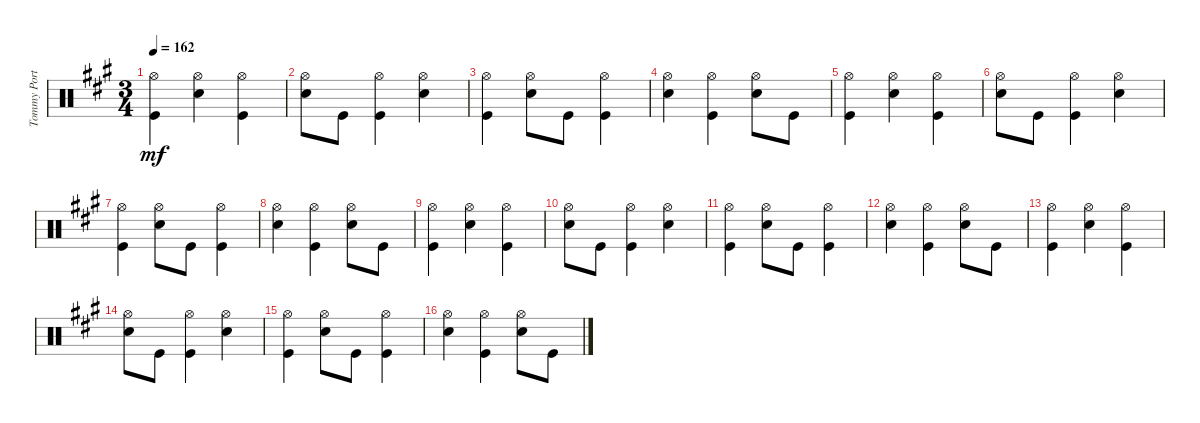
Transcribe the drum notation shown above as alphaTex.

\track ("Tommy Portimo (Drums)" "Tommy Port") {instrument percussion}
\staff {score}
\articulation defaults
\ts (3 4)
\tempo 162
\clef neutral
\ks a
("Kick (hit)" "Hi-Hat (open)").4{dy mf} ("Electric Snare (hit)" "Hi-Hat (open)").4 ("Kick (hit)" "Hi-Hat (open)").4 |
("Electric Snare (hit)" "Hi-Hat (open)").8 "Kick (hit)".8 ("Kick (hit)" "Hi-Hat (open)").4 ("Electric Snare (hit)" "Hi-Hat (open)").4 |
("Kick (hit)" "Hi-Hat (open)").4 ("Electric Snare (hit)" "Hi-Hat (open)").8 "Kick (hit)".8 ("Kick (hit)" "Hi-Hat (open)").4 |
("Electric Snare (hit)" "Hi-Hat (open)").4 ("Kick (hit)" "Hi-Hat (open)").4 ("Electric Snare (hit)" "Hi-Hat (open)").8 "Kick (hit)".8 |
("Kick (hit)" "Hi-Hat (open)").4 ("Electric Snare (hit)" "Hi-Hat (open)").4 ("Kick (hit)" "Hi-Hat (open)").4 |
("Electric Snare (hit)" "Hi-Hat (open)").8 "Kick (hit)".8 ("Kick (hit)" "Hi-Hat (open)").4 ("Electric Snare (hit)" "Hi-Hat (open)").4 |
("Kick (hit)" "Hi-Hat (open)").4 ("Electric Snare (hit)" "Hi-Hat (open)").8 "Kick (hit)".8 ("Kick (hit)" "Hi-Hat (open)").4 |
("Electric Snare (hit)" "Hi-Hat (open)").4 ("Kick (hit)" "Hi-Hat (open)").4 ("Electric Snare (hit)" "Hi-Hat (open)").8 "Kick (hit)".8 |
("Kick (hit)" "Hi-Hat (open)").4 ("Electric Snare (hit)" "Hi-Hat (open)").4 ("Kick (hit)" "Hi-Hat (open)").4 |
("Electric Snare (hit)" "Hi-Hat (open)").8 "Kick (hit)".8 ("Kick (hit)" "Hi-Hat (open)").4 ("Electric Snare (hit)" "Hi-Hat (open)").4 |
("Kick (hit)" "Hi-Hat (open)").4 ("Electric Snare (hit)" "Hi-Hat (open)").8 "Kick (hit)".8 ("Kick (hit)" "Hi-Hat (open)").4 |
("Electric Snare (hit)" "Hi-Hat (open)").4 ("Kick (hit)" "Hi-Hat (open)").4 ("Electric Snare (hit)" "Hi-Hat (open)").8 "Kick (hit)".8 |
("Kick (hit)" "Hi-Hat (open)").4 ("Electric Snare (hit)" "Hi-Hat (open)").4 ("Kick (hit)" "Hi-Hat (open)").4 |
("Electric Snare (hit)" "Hi-Hat (open)").8 "Kick (hit)".8 ("Kick (hit)" "Hi-Hat (open)").4 ("Electric Snare (hit)" "Hi-Hat (open)").4 |
("Kick (hit)" "Hi-Hat (open)").4 ("Electric Snare (hit)" "Hi-Hat (open)").8 "Kick (hit)".8 ("Kick (hit)" "Hi-Hat (open)").4 |
("Electric Snare (hit)" "Hi-Hat (open)").4 ("Kick (hit)" "Hi-Hat (open)").4 ("Electric Snare (hit)" "Hi-Hat (open)").8 "Kick (hit)".8
